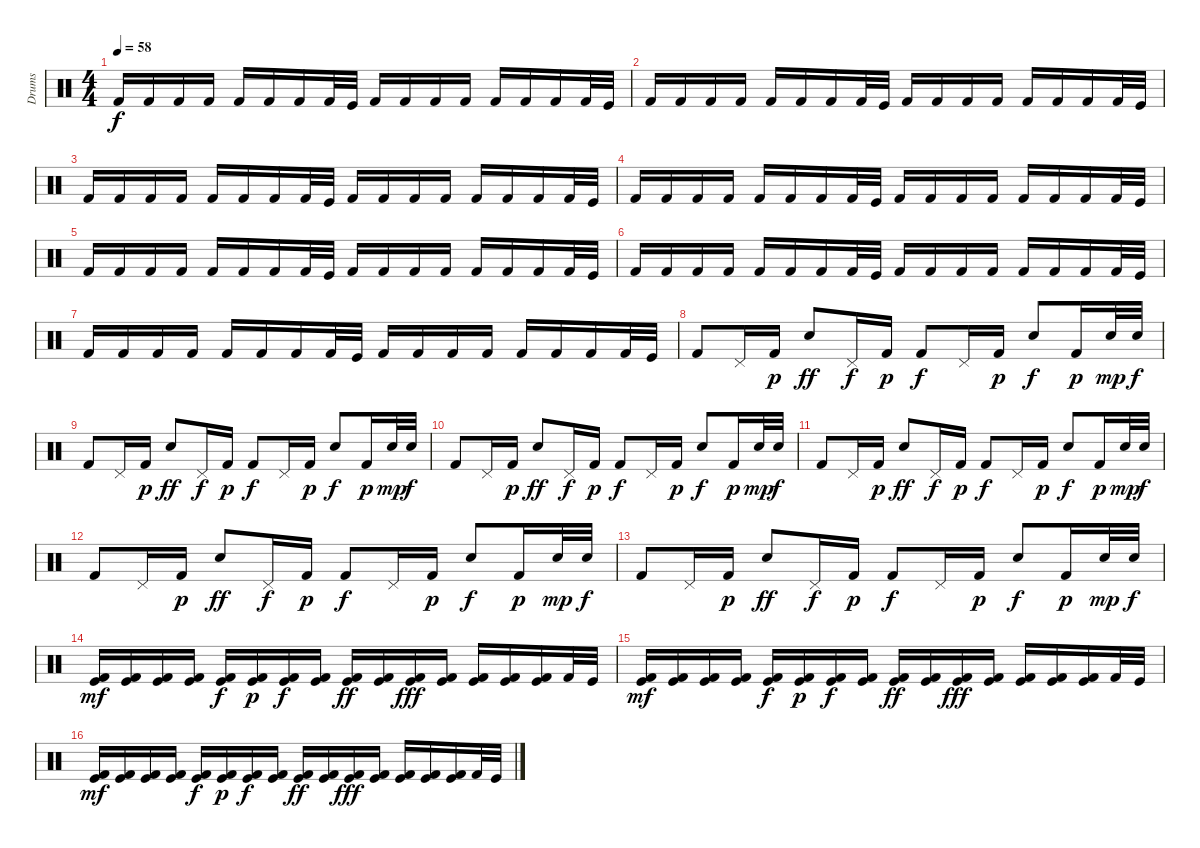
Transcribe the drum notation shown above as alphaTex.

\track ("Drums " "Drums ") {instrument percussion}
\staff {score}
\articulation defaults
\ts (4 4)
\tempo 58
\clef neutral
\ks c "Kick (hit) 2".16{dy f} "Kick (hit) 2".16 "Kick (hit) 2".16 "Kick (hit) 2".16 "Kick (hit) 2".16 "Kick (hit) 2".16 "Kick (hit) 2".16 "Kick (hit) 2".32 "Kick (hit)".32 "Kick (hit) 2".16 "Kick (hit) 2".16 "Kick (hit) 2".16 "Kick (hit) 2".16 "Kick (hit) 2".16 "Kick (hit) 2".16 "Kick (hit) 2".16 "Kick (hit) 2".32 "Kick (hit)".32
|
"Kick (hit) 2".16 "Kick (hit) 2".16 "Kick (hit) 2".16 "Kick (hit) 2".16 "Kick (hit) 2".16 "Kick (hit) 2".16 "Kick (hit) 2".16 "Kick (hit) 2".32 "Kick (hit)".32 "Kick (hit) 2".16 "Kick (hit) 2".16 "Kick (hit) 2".16 "Kick (hit) 2".16 "Kick (hit) 2".16 "Kick (hit) 2".16 "Kick (hit) 2".16 "Kick (hit) 2".32 "Kick (hit)".32 |
"Kick (hit) 2".16 "Kick (hit) 2".16 "Kick (hit) 2".16 "Kick (hit) 2".16 "Kick (hit) 2".16 "Kick (hit) 2".16 "Kick (hit) 2".16 "Kick (hit) 2".32 "Kick (hit)".32 "Kick (hit) 2".16 "Kick (hit) 2".16 "Kick (hit) 2".16 "Kick (hit) 2".16 "Kick (hit) 2".16 "Kick (hit) 2".16 "Kick (hit) 2".16 "Kick (hit) 2".32 "Kick (hit)".32 |
"Kick (hit) 2".16 "Kick (hit) 2".16 "Kick (hit) 2".16 "Kick (hit) 2".16 "Kick (hit) 2".16 "Kick (hit) 2".16 "Kick (hit) 2".16 "Kick (hit) 2".32 "Kick (hit)".32 "Kick (hit) 2".16 "Kick (hit) 2".16 "Kick (hit) 2".16 "Kick (hit) 2".16 "Kick (hit) 2".16 "Kick (hit) 2".16 "Kick (hit) 2".16 "Kick (hit) 2".32 "Kick (hit)".32 |
"Kick (hit) 2".16 "Kick (hit) 2".16 "Kick (hit) 2".16 "Kick (hit) 2".16 "Kick (hit) 2".16 "Kick (hit) 2".16 "Kick (hit) 2".16 "Kick (hit) 2".32 "Kick (hit)".32 "Kick (hit) 2".16 "Kick (hit) 2".16 "Kick (hit) 2".16 "Kick (hit) 2".16 "Kick (hit) 2".16 "Kick (hit) 2".16 "Kick (hit) 2".16 "Kick (hit) 2".32 "Kick (hit)".32 |
"Kick (hit) 2".16 "Kick (hit) 2".16 "Kick (hit) 2".16 "Kick (hit) 2".16 "Kick (hit) 2".16 "Kick (hit) 2".16 "Kick (hit) 2".16 "Kick (hit) 2".32 "Kick (hit)".32 "Kick (hit) 2".16 "Kick (hit) 2".16 "Kick (hit) 2".16 "Kick (hit) 2".16 "Kick (hit) 2".16 "Kick (hit) 2".16 "Kick (hit) 2".16 "Kick (hit) 2".32 "Kick (hit)".32 |
"Kick (hit) 2".16 "Kick (hit) 2".16 "Kick (hit) 2".16 "Kick (hit) 2".16 "Kick (hit) 2".16 "Kick (hit) 2".16 "Kick (hit) 2".16 "Kick (hit) 2".32 "Kick (hit)".32 "Kick (hit) 2".16 "Kick (hit) 2".16 "Kick (hit) 2".16 "Kick (hit) 2".16 "Kick (hit) 2".16 "Kick (hit) 2".16 "Kick (hit) 2".16 "Kick (hit) 2".32 "Kick (hit)".32 |
"Kick (hit) 2".8 "Pedal Hi-Hat (hit)".16 "Kick (hit) 2".16{dy p} "Electric Snare (hit)".8{dy ff} "Pedal Hi-Hat (hit)".16{dy f} "Kick (hit) 2".16{dy p} "Kick (hit) 2".8{dy f} "Pedal Hi-Hat (hit)".16 "Kick (hit) 2".16{dy p} "Electric Snare (hit)".8{dy f} "Kick (hit) 2".16{dy p} "Electric Snare (hit)".32{dy mp} "Electric Snare (hit)".32{dy f} |
"Kick (hit) 2".8 "Pedal Hi-Hat (hit)".16 "Kick (hit) 2".16{dy p} "Electric Snare (hit)".8{dy ff} "Pedal Hi-Hat (hit)".16{dy f} "Kick (hit) 2".16{dy p} "Kick (hit) 2".8{dy f} "Pedal Hi-Hat (hit)".16 "Kick (hit) 2".16{dy p} "Electric Snare (hit)".8{dy f} "Kick (hit) 2".16{dy p} "Electric Snare (hit)".32{dy mp} "Electric Snare (hit)".32{dy f} |
"Kick (hit) 2".8 "Pedal Hi-Hat (hit)".16 "Kick (hit) 2".16{dy p} "Electric Snare (hit)".8{dy ff} "Pedal Hi-Hat (hit)".16{dy f} "Kick (hit) 2".16{dy p} "Kick (hit) 2".8{dy f} "Pedal Hi-Hat (hit)".16 "Kick (hit) 2".16{dy p} "Electric Snare (hit)".8{dy f} "Kick (hit) 2".16{dy p} "Electric Snare (hit)".32{dy mp} "Electric Snare (hit)".32{dy f} |
"Kick (hit) 2".8 "Pedal Hi-Hat (hit)".16 "Kick (hit) 2".16{dy p} "Electric Snare (hit)".8{dy ff} "Pedal Hi-Hat (hit)".16{dy f} "Kick (hit) 2".16{dy p} "Kick (hit) 2".8{dy f} "Pedal Hi-Hat (hit)".16 "Kick (hit) 2".16{dy p} "Electric Snare (hit)".8{dy f} "Kick (hit) 2".16{dy p} "Electric Snare (hit)".32{dy mp} "Electric Snare (hit)".32{dy f} |
"Kick (hit) 2".8 "Pedal Hi-Hat (hit)".16 "Kick (hit) 2".16{dy p} "Electric Snare (hit)".8{dy ff} "Pedal Hi-Hat (hit)".16{dy f} "Kick (hit) 2".16{dy p} "Kick (hit) 2".8{dy f} "Pedal Hi-Hat (hit)".16 "Kick (hit) 2".16{dy p} "Electric Snare (hit)".8{dy f} "Kick (hit) 2".16{dy p} "Electric Snare (hit)".32{dy mp} "Electric Snare (hit)".32{dy f} |
"Kick (hit) 2".8 "Pedal Hi-Hat (hit)".16 "Kick (hit) 2".16{dy p} "Electric Snare (hit)".8{dy ff} "Pedal Hi-Hat (hit)".16{dy f} "Kick (hit) 2".16{dy p} "Kick (hit) 2".8{dy f} "Pedal Hi-Hat (hit)".16 "Kick (hit) 2".16{dy p} "Electric Snare (hit)".8{dy f} "Kick (hit) 2".16{dy p} "Electric Snare (hit)".32{dy mp} "Electric Snare (hit)".32{dy f} |
("Kick (hit)" "Kick (hit) 2").16{dy mf} ("Kick (hit)" "Kick (hit) 2").16 ("Kick (hit)" "Kick (hit) 2").16 ("Kick (hit)" "Kick (hit) 2").16 ("Kick (hit)" "Kick (hit) 2").16{dy f} ("Kick (hit)" "Kick (hit) 2").16{dy p} ("Kick (hit)" "Kick (hit) 2").16{dy f} ("Kick (hit)" "Kick (hit) 2").16 ("Kick (hit)" "Kick (hit) 2").16{dy ff} ("Kick (hit)" "Kick (hit) 2").16 ("Kick (hit)" "Kick (hit) 2").16{dy fff} ("Kick (hit)" "Kick (hit) 2").16 ("Kick (hit)" "Kick (hit) 2").16 ("Kick (hit)" "Kick (hit) 2").16 ("Kick (hit)" "Kick (hit) 2").16 "Kick (hit) 2".32 "Kick (hit)".32 |
("Kick (hit)" "Kick (hit) 2").16{dy mf} ("Kick (hit)" "Kick (hit) 2").16 ("Kick (hit)" "Kick (hit) 2").16 ("Kick (hit)" "Kick (hit) 2").16 ("Kick (hit)" "Kick (hit) 2").16{dy f} ("Kick (hit)" "Kick (hit) 2").16{dy p} ("Kick (hit)" "Kick (hit) 2").16{dy f} ("Kick (hit)" "Kick (hit) 2").16 ("Kick (hit)" "Kick (hit) 2").16{dy ff} ("Kick (hit)" "Kick (hit) 2").16 ("Kick (hit)" "Kick (hit) 2").16{dy fff} ("Kick (hit)" "Kick (hit) 2").16 ("Kick (hit)" "Kick (hit) 2").16 ("Kick (hit)" "Kick (hit) 2").16 ("Kick (hit)" "Kick (hit) 2").16 "Kick (hit) 2".32 "Kick (hit)".32 |
("Kick (hit)" "Kick (hit) 2").16{dy mf} ("Kick (hit)" "Kick (hit) 2").16 ("Kick (hit)" "Kick (hit) 2").16 ("Kick (hit)" "Kick (hit) 2").16 ("Kick (hit)" "Kick (hit) 2").16{dy f} ("Kick (hit)" "Kick (hit) 2").16{dy p} ("Kick (hit)" "Kick (hit) 2").16{dy f} ("Kick (hit)" "Kick (hit) 2").16 ("Kick (hit)" "Kick (hit) 2").16{dy ff} ("Kick (hit)" "Kick (hit) 2").16 ("Kick (hit)" "Kick (hit) 2").16{dy fff} ("Kick (hit)" "Kick (hit) 2").16 ("Kick (hit)" "Kick (hit) 2").16 ("Kick (hit)" "Kick (hit) 2").16 ("Kick (hit)" "Kick (hit) 2").16 "Kick (hit) 2".32 "Kick (hit)".32
